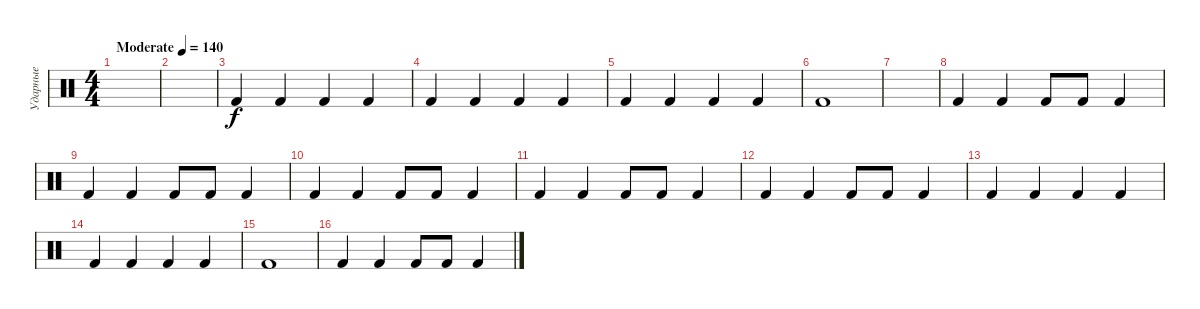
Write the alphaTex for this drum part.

\track ("Ударные" "Ударные") {instrument percussion}
\staff {score}
\articulation defaults
\ts (4 4)
\tempo (140 "Moderate")
\clef neutral
\ks c
|
|
"Kick (hit) 2".4 "Kick (hit) 2".4 "Kick (hit) 2".4 "Kick (hit) 2".4 |
"Kick (hit) 2".4 "Kick (hit) 2".4 "Kick (hit) 2".4 "Kick (hit) 2".4 |
"Kick (hit) 2".4 "Kick (hit) 2".4 "Kick (hit) 2".4 "Kick (hit) 2".4 |
"Kick (hit) 2".1 |
|
"Kick (hit) 2".4 "Kick (hit) 2".4 "Kick (hit) 2".8 "Kick (hit) 2".8 "Kick (hit) 2".4 |
"Kick (hit) 2".4 "Kick (hit) 2".4 "Kick (hit) 2".8 "Kick (hit) 2".8 "Kick (hit) 2".4 |
"Kick (hit) 2".4 "Kick (hit) 2".4 "Kick (hit) 2".8 "Kick (hit) 2".8 "Kick (hit) 2".4 |
"Kick (hit) 2".4 "Kick (hit) 2".4 "Kick (hit) 2".8 "Kick (hit) 2".8 "Kick (hit) 2".4 |
"Kick (hit) 2".4 "Kick (hit) 2".4 "Kick (hit) 2".8 "Kick (hit) 2".8 "Kick (hit) 2".4 |
"Kick (hit) 2".4 "Kick (hit) 2".4 "Kick (hit) 2".4 "Kick (hit) 2".4 |
"Kick (hit) 2".4 "Kick (hit) 2".4 "Kick (hit) 2".4 "Kick (hit) 2".4 |
"Kick (hit) 2".1 |
"Kick (hit) 2".4 "Kick (hit) 2".4 "Kick (hit) 2".8 "Kick (hit) 2".8 "Kick (hit) 2".4
